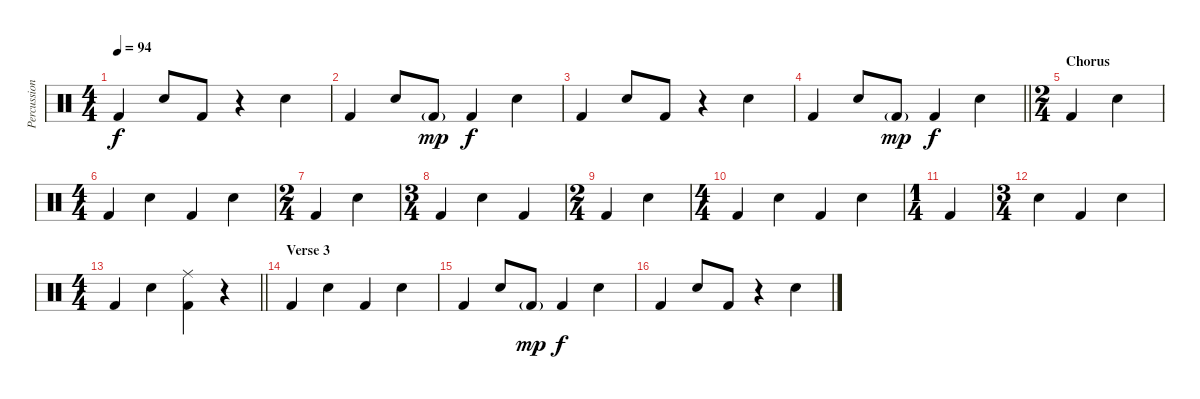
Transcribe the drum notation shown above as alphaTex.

\track ("Percussion" "Percussion") {instrument percussion}
\staff {score}
\articulation defaults
\ts (4 4)
\tempo 94
\clef neutral
\ks c "Kick (hit) 2".4{dy f} "Snare (hit) 2".8 "Kick (hit) 2".8
r.4 "Snare (hit) 2".4 |
"Kick (hit) 2".4 "Snare (hit) 2".8 "Kick (hit) 2"{g}.8{dy mp} "Kick (hit) 2".4{dy f} "Snare (hit) 2".4 |
"Kick (hit) 2".4 "Snare (hit) 2".8 "Kick (hit) 2".8 r.4 "Snare (hit) 2".4 |
\barLineRight lightlight "Kick (hit) 2".4 "Snare (hit) 2".8 "Kick (hit) 2"{g}.8{dy mp} "Kick (hit) 2".4{dy f} "Snare (hit) 2".4
|
\ts (2 4)
\section ("" "Chorus")
"Kick (hit) 2".4 "Snare (hit) 2".4 |
\ts (4 4)
"Kick (hit) 2".4 "Snare (hit) 2".4 "Kick (hit) 2".4 "Snare (hit) 2".4 |
\ts (2 4)
"Kick (hit) 2".4 "Snare (hit) 2".4 |
\ts (3 4)
"Kick (hit) 2".4 "Snare (hit) 2".4 "Kick (hit) 2".4 |
\ts (2 4)
"Kick (hit) 2".4 "Snare (hit) 2".4 |
\ts (4 4)
"Kick (hit) 2".4 "Snare (hit) 2".4 "Kick (hit) 2".4 "Snare (hit) 2".4 |
\ts (1 4)
"Kick (hit) 2".4 |
\ts (3 4)
"Snare (hit) 2".4 "Kick (hit) 2".4 "Snare (hit) 2".4 |
\ts (4 4)
\barLineRight lightlight "Kick (hit) 2".4 "Snare (hit) 2".4
("Ride (middle)" "Kick (hit) 2").4 r.4 |
\section ("" "Verse 3")
"Kick (hit) 2".4 "Snare (hit) 2".4 "Kick (hit) 2".4 "Snare (hit) 2".4 |
"Kick (hit) 2".4 "Snare (hit) 2".8 "Kick (hit) 2"{g}.8{dy mp} "Kick (hit) 2".4{dy f} "Snare (hit) 2".4 |
"Kick (hit) 2".4 "Snare (hit) 2".8 "Kick (hit) 2".8 r.4 "Snare (hit) 2".4
